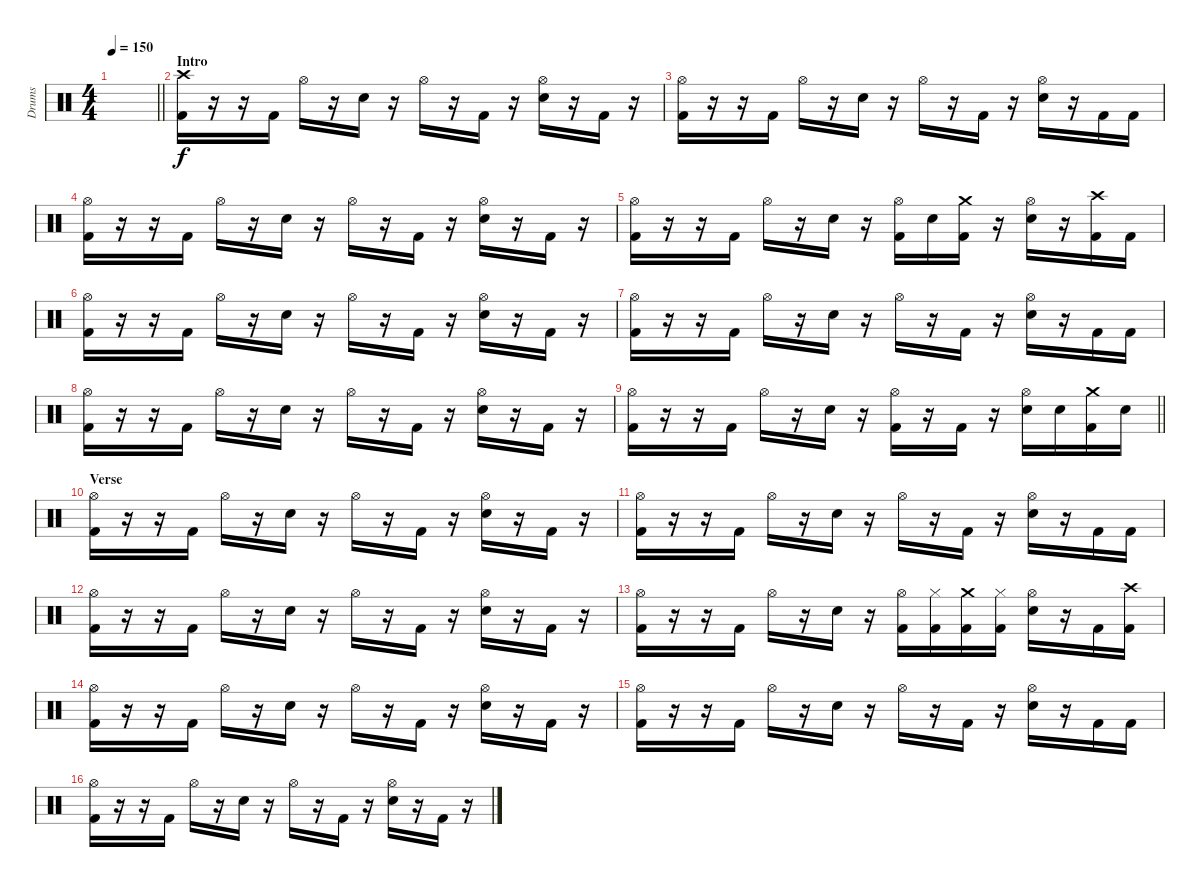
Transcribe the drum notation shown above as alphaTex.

\track ("Drums" "Drums") {instrument percussion}
\staff {score}
\articulation defaults
\ts (4 4)
\tempo 150
\clef neutral
\barLineRight lightlight
\ks c
|
\section ("" "Intro")
("Crash high (hit)" "Kick (hit) 2").16 r.16 r.16 "Kick (hit) 2".16 "Hi-Hat (open)".16 r.16 "Snare (hit) 2".16 r.16 "Hi-Hat (open)".16 r.16 "Kick (hit) 2".16 r.16 ("Hi-Hat (open)" "Snare (hit) 2").16 r.16 "Kick (hit) 2".16 r.16 |
("Hi-Hat (open)" "Kick (hit) 2").16 r.16 r.16 "Kick (hit) 2".16 "Hi-Hat (open)".16 r.16 "Snare (hit) 2".16 r.16 "Hi-Hat (open)".16 r.16 "Kick (hit) 2".16 r.16 ("Hi-Hat (open)" "Snare (hit) 2").16 r.16 "Kick (hit) 2".16 "Kick (hit) 2".16 |
("Hi-Hat (open)" "Kick (hit) 2").16 r.16 r.16 "Kick (hit) 2".16 "Hi-Hat (open)".16 r.16 "Snare (hit) 2".16 r.16 "Hi-Hat (open)".16 r.16 "Kick (hit) 2".16 r.16 ("Hi-Hat (open)" "Snare (hit) 2").16 r.16 "Kick (hit) 2".16 r.16 |
("Hi-Hat (open)" "Kick (hit) 2").16 r.16 r.16 "Kick (hit) 2".16 "Hi-Hat (open)".16 r.16 "Snare (hit) 2".16 r.16 ("Hi-Hat (open)" "Kick (hit) 2").16 "Snare (hit) 2".16 ("Crash medium (hit)" "Kick (hit) 2").16 r.16 ("Hi-Hat (open)" "Snare (hit) 2").16 r.16 ("Crash high (hit)" "Kick (hit) 2").16 "Kick (hit) 2".16 |
("Hi-Hat (open)" "Kick (hit) 2").16 r.16 r.16 "Kick (hit) 2".16 "Hi-Hat (open)".16 r.16 "Snare (hit) 2".16 r.16 "Hi-Hat (open)".16 r.16 "Kick (hit) 2".16 r.16 ("Hi-Hat (open)" "Snare (hit) 2").16 r.16 "Kick (hit) 2".16 r.16 |
("Hi-Hat (open)" "Kick (hit) 2").16 r.16 r.16 "Kick (hit) 2".16 "Hi-Hat (open)".16 r.16 "Snare (hit) 2".16 r.16 "Hi-Hat (open)".16 r.16 "Kick (hit) 2".16 r.16 ("Hi-Hat (open)" "Snare (hit) 2").16 r.16 "Kick (hit) 2".16 "Kick (hit) 2".16 |
("Hi-Hat (open)" "Kick (hit) 2").16 r.16 r.16 "Kick (hit) 2".16 "Hi-Hat (open)".16 r.16 "Snare (hit) 2".16 r.16 "Hi-Hat (open)".16 r.16 "Kick (hit) 2".16 r.16 ("Hi-Hat (open)" "Snare (hit) 2").16 r.16 "Kick (hit) 2".16 r.16 |
\barLineRight lightlight
("Hi-Hat (open)" "Kick (hit) 2").16 r.16 r.16 "Kick (hit) 2".16 "Hi-Hat (open)".16 r.16 "Snare (hit) 2".16 r.16 ("Hi-Hat (open)" "Kick (hit) 2").16 r.16 "Kick (hit) 2".16 r.16 ("Hi-Hat (open)" "Snare (hit) 2").16 "Snare (hit) 2".16 ("Crash medium (hit)" "Kick (hit) 2").16 "Snare (hit) 2".16 |
\section ("" "Verse")
("Hi-Hat (open)" "Kick (hit) 2").16 r.16 r.16 "Kick (hit) 2".16 "Hi-Hat (open)".16 r.16 "Snare (hit) 2".16 r.16 "Hi-Hat (open)".16 r.16 "Kick (hit) 2".16 r.16 ("Hi-Hat (open)" "Snare (hit) 2").16 r.16 "Kick (hit) 2".16 r.16 |
("Hi-Hat (open)" "Kick (hit) 2").16 r.16 r.16 "Kick (hit) 2".16 "Hi-Hat (open)".16 r.16 "Snare (hit) 2".16 r.16 "Hi-Hat (open)".16 r.16 "Kick (hit) 2".16 r.16 ("Hi-Hat (open)" "Snare (hit) 2").16 r.16 "Kick (hit) 2".16 "Kick (hit) 2".16 |
("Hi-Hat (open)" "Kick (hit) 2").16 r.16 r.16 "Kick (hit) 2".16 "Hi-Hat (open)".16 r.16 "Snare (hit) 2".16 r.16 "Hi-Hat (open)".16 r.16 "Kick (hit) 2".16 r.16 ("Hi-Hat (open)" "Snare (hit) 2").16 r.16 "Kick (hit) 2".16 r.16 |
("Hi-Hat (open)" "Kick (hit) 2").16 r.16 r.16 "Kick (hit) 2".16 "Hi-Hat (open)".16 r.16 "Snare (hit) 2".16 r.16 ("Hi-Hat (open)" "Kick (hit) 2").16 ("Hi-Hat (closed)" "Kick (hit) 2").16 ("Crash medium (hit)" "Kick (hit) 2").16 ("Hi-Hat (closed)" "Kick (hit) 2").16 ("Hi-Hat (open)" "Snare (hit) 2").16 r.16 "Kick (hit) 2".16 ("Crash high (hit)" "Kick (hit) 2").16 |
("Hi-Hat (open)" "Kick (hit) 2").16 r.16 r.16 "Kick (hit) 2".16 "Hi-Hat (open)".16 r.16 "Snare (hit) 2".16 r.16 "Hi-Hat (open)".16 r.16 "Kick (hit) 2".16 r.16 ("Hi-Hat (open)" "Snare (hit) 2").16 r.16 "Kick (hit) 2".16 r.16 |
("Hi-Hat (open)" "Kick (hit) 2").16 r.16 r.16 "Kick (hit) 2".16 "Hi-Hat (open)".16 r.16 "Snare (hit) 2".16 r.16 "Hi-Hat (open)".16 r.16 "Kick (hit) 2".16 r.16 ("Hi-Hat (open)" "Snare (hit) 2").16 r.16 "Kick (hit) 2".16 "Kick (hit) 2".16 |
("Hi-Hat (open)" "Kick (hit) 2").16 r.16 r.16 "Kick (hit) 2".16 "Hi-Hat (open)".16 r.16 "Snare (hit) 2".16 r.16 "Hi-Hat (open)".16 r.16 "Kick (hit) 2".16 r.16 ("Hi-Hat (open)" "Snare (hit) 2").16 r.16 "Kick (hit) 2".16 r.16
